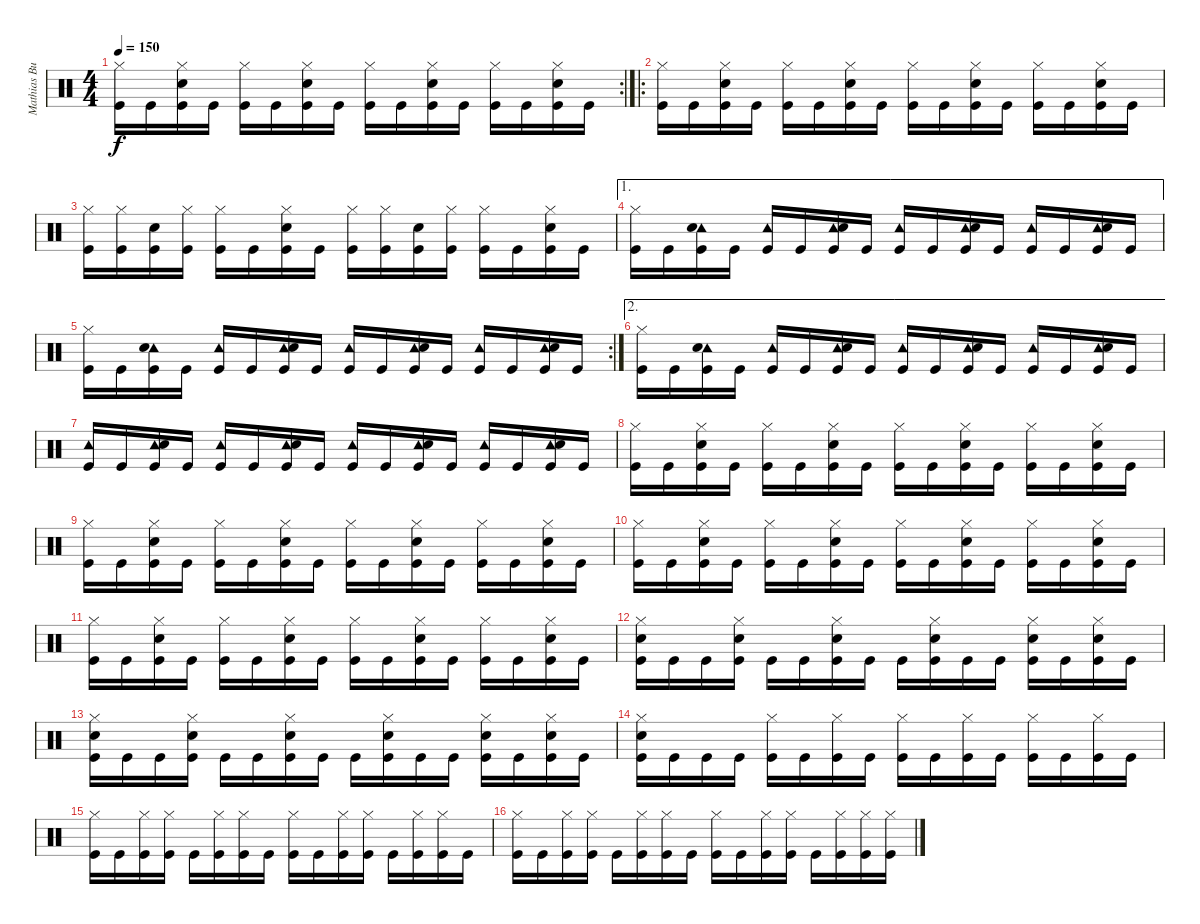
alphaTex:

\track ("Mathias Burchardt - batterie" "Mathias Bu") {instrument percussion}
\staff {score}
\articulation defaults
\rc 2
\ts (4 4)
\tempo 150
\clef neutral
\ks c
("Hi-Hat (closed)" "Kick (hit)").16{dy f} "Kick (hit)".16 ("Hi-Hat (closed)" "Snare (hit) 2" "Kick (hit)").16 "Kick (hit)".16 ("Hi-Hat (closed)" "Kick (hit)").16 "Kick (hit)".16 ("Hi-Hat (closed)" "Snare (hit) 2" "Kick (hit)").16 "Kick (hit)".16 ("Hi-Hat (closed)" "Kick (hit)").16 "Kick (hit)".16 ("Hi-Hat (closed)" "Snare (hit) 2" "Kick (hit)").16 "Kick (hit)".16 ("Hi-Hat (closed)" "Kick (hit)").16 "Kick (hit)".16 ("Hi-Hat (closed)" "Snare (hit) 2" "Kick (hit)").16 "Kick (hit)".16 |
\ro
("Hi-Hat (closed)" "Kick (hit)").16 "Kick (hit)".16 ("Hi-Hat (closed)" "Snare (hit) 2" "Kick (hit)").16 "Kick (hit)".16 ("Hi-Hat (closed)" "Kick (hit)").16 "Kick (hit)".16 ("Hi-Hat (closed)" "Snare (hit) 2" "Kick (hit)").16 "Kick (hit)".16 ("Hi-Hat (closed)" "Kick (hit)").16 "Kick (hit)".16 ("Hi-Hat (closed)" "Snare (hit) 2" "Kick (hit)").16 "Kick (hit)".16 ("Hi-Hat (closed)" "Kick (hit)").16 "Kick (hit)".16 ("Hi-Hat (closed)" "Snare (hit) 2" "Kick (hit)").16 "Kick (hit)".16 |
("Hi-Hat (closed)" "Kick (hit)").16 ("Hi-Hat (closed)" "Kick (hit)").16 ("Snare (hit) 2" "Kick (hit)").16 ("Hi-Hat (closed)" "Kick (hit)").16 ("Hi-Hat (closed)" "Kick (hit)").16 "Kick (hit)".16 ("Hi-Hat (closed)" "Snare (hit) 2" "Kick (hit)").16 "Kick (hit)".16 ("Hi-Hat (closed)" "Kick (hit)").16 ("Hi-Hat (closed)" "Kick (hit)").16 ("Snare (hit) 2" "Kick (hit)").16 ("Hi-Hat (closed)" "Kick (hit)").16 ("Hi-Hat (closed)" "Kick (hit)").16 "Kick (hit)".16 ("Hi-Hat (closed)" "Snare (hit) 2" "Kick (hit)").16 "Kick (hit)".16 |
\ae 1
("Hi-Hat (closed)" "Kick (hit)").16 "Kick (hit)".16 ("Tambourine (hit)" "Snare (hit) 2" "Kick (hit)").16 "Kick (hit)".16 ("Tambourine (hit)" "Kick (hit)").16 "Kick (hit)".16 ("Tambourine (hit)" "Snare (hit) 2" "Kick (hit)").16 "Kick (hit)".16 ("Tambourine (hit)" "Kick (hit)").16 "Kick (hit)".16 ("Tambourine (hit)" "Snare (hit) 2" "Kick (hit)").16 "Kick (hit)".16 ("Tambourine (hit)" "Kick (hit)").16 "Kick (hit)".16 ("Tambourine (hit)" "Snare (hit) 2" "Kick (hit)").16 "Kick (hit)".16 |
\rc 2
("Hi-Hat (closed)" "Kick (hit)").16 "Kick (hit)".16 ("Tambourine (hit)" "Snare (hit) 2" "Kick (hit)").16 "Kick (hit)".16 ("Tambourine (hit)" "Kick (hit)").16 "Kick (hit)".16 ("Tambourine (hit)" "Snare (hit) 2" "Kick (hit)").16 "Kick (hit)".16 ("Tambourine (hit)" "Kick (hit)").16 "Kick (hit)".16 ("Tambourine (hit)" "Snare (hit) 2" "Kick (hit)").16 "Kick (hit)".16 ("Tambourine (hit)" "Kick (hit)").16 "Kick (hit)".16 ("Tambourine (hit)" "Snare (hit) 2" "Kick (hit)").16 "Kick (hit)".16 |
\ae 2
("Hi-Hat (closed)" "Kick (hit)").16 "Kick (hit)".16 ("Tambourine (hit)" "Snare (hit) 2" "Kick (hit)").16 "Kick (hit)".16 ("Tambourine (hit)" "Kick (hit)").16 "Kick (hit)".16 ("Tambourine (hit)" "Snare (hit) 2" "Kick (hit)").16 "Kick (hit)".16 ("Tambourine (hit)" "Kick (hit)").16 "Kick (hit)".16 ("Tambourine (hit)" "Snare (hit) 2" "Kick (hit)").16 "Kick (hit)".16 ("Tambourine (hit)" "Kick (hit)").16 "Kick (hit)".16 ("Tambourine (hit)" "Snare (hit) 2" "Kick (hit)").16 "Kick (hit)".16 |
("Tambourine (hit)" "Kick (hit)").16 "Kick (hit)".16 ("Tambourine (hit)" "Snare (hit) 2" "Kick (hit)").16 "Kick (hit)".16 ("Tambourine (hit)" "Kick (hit)").16 "Kick (hit)".16 ("Tambourine (hit)" "Snare (hit) 2" "Kick (hit)").16 "Kick (hit)".16 ("Tambourine (hit)" "Kick (hit)").16 "Kick (hit)".16 ("Tambourine (hit)" "Snare (hit) 2" "Kick (hit)").16 "Kick (hit)".16 ("Tambourine (hit)" "Kick (hit)").16 "Kick (hit)".16 ("Tambourine (hit)" "Snare (hit) 2" "Kick (hit)").16 "Kick (hit)".16 |
("Hi-Hat (closed)" "Kick (hit)").16 "Kick (hit)".16 ("Hi-Hat (closed)" "Snare (hit) 2" "Kick (hit)").16 "Kick (hit)".16 ("Hi-Hat (closed)" "Kick (hit)").16 "Kick (hit)".16 ("Hi-Hat (closed)" "Snare (hit) 2" "Kick (hit)").16 "Kick (hit)".16 ("Hi-Hat (closed)" "Kick (hit)").16 "Kick (hit)".16 ("Hi-Hat (closed)" "Snare (hit) 2" "Kick (hit)").16 "Kick (hit)".16 ("Hi-Hat (closed)" "Kick (hit)").16 "Kick (hit)".16 ("Hi-Hat (closed)" "Snare (hit) 2" "Kick (hit)").16 "Kick (hit)".16 |
("Hi-Hat (closed)" "Kick (hit)").16 "Kick (hit)".16 ("Hi-Hat (closed)" "Snare (hit) 2" "Kick (hit)").16 "Kick (hit)".16 ("Hi-Hat (closed)" "Kick (hit)").16 "Kick (hit)".16 ("Hi-Hat (closed)" "Snare (hit) 2" "Kick (hit)").16 "Kick (hit)".16 ("Hi-Hat (closed)" "Kick (hit)").16 "Kick (hit)".16 ("Hi-Hat (closed)" "Snare (hit) 2" "Kick (hit)").16 "Kick (hit)".16 ("Hi-Hat (closed)" "Kick (hit)").16 "Kick (hit)".16 ("Hi-Hat (closed)" "Snare (hit) 2" "Kick (hit)").16 "Kick (hit)".16 |
("Hi-Hat (closed)" "Kick (hit)").16 "Kick (hit)".16 ("Hi-Hat (closed)" "Snare (hit) 2" "Kick (hit)").16 "Kick (hit)".16 ("Hi-Hat (closed)" "Kick (hit)").16 "Kick (hit)".16 ("Hi-Hat (closed)" "Snare (hit) 2" "Kick (hit)").16 "Kick (hit)".16 ("Hi-Hat (closed)" "Kick (hit)").16 "Kick (hit)".16 ("Hi-Hat (closed)" "Snare (hit) 2" "Kick (hit)").16 "Kick (hit)".16 ("Hi-Hat (closed)" "Kick (hit)").16 "Kick (hit)".16 ("Hi-Hat (closed)" "Snare (hit) 2" "Kick (hit)").16 "Kick (hit)".16 |
("Hi-Hat (closed)" "Kick (hit)").16 "Kick (hit)".16 ("Hi-Hat (closed)" "Snare (hit) 2" "Kick (hit)").16 "Kick (hit)".16 ("Hi-Hat (closed)" "Kick (hit)").16 "Kick (hit)".16 ("Hi-Hat (closed)" "Snare (hit) 2" "Kick (hit)").16 "Kick (hit)".16 ("Hi-Hat (closed)" "Kick (hit)").16 "Kick (hit)".16 ("Hi-Hat (closed)" "Snare (hit) 2" "Kick (hit)").16 "Kick (hit)".16 ("Hi-Hat (closed)" "Kick (hit)").16 "Kick (hit)".16 ("Hi-Hat (closed)" "Snare (hit) 2" "Kick (hit)").16 "Kick (hit)".16 |
("Hi-Hat (closed)" "Snare (hit) 2" "Kick (hit)").16 "Kick (hit)".16 "Kick (hit)".16 ("Hi-Hat (closed)" "Snare (hit) 2" "Kick (hit)").16 "Kick (hit)".16 "Kick (hit)".16 ("Hi-Hat (closed)" "Snare (hit) 2" "Kick (hit)").16 "Kick (hit)".16 "Kick (hit)".16 ("Hi-Hat (closed)" "Snare (hit) 2" "Kick (hit)").16 "Kick (hit)".16 "Kick (hit)".16 ("Hi-Hat (closed)" "Snare (hit) 2" "Kick (hit)").16 "Kick (hit)".16 ("Hi-Hat (closed)" "Snare (hit) 2" "Kick (hit)").16 "Kick (hit)".16 |
("Hi-Hat (closed)" "Snare (hit) 2" "Kick (hit)").16 "Kick (hit)".16 "Kick (hit)".16 ("Hi-Hat (closed)" "Snare (hit) 2" "Kick (hit)").16 "Kick (hit)".16 "Kick (hit)".16 ("Hi-Hat (closed)" "Snare (hit) 2" "Kick (hit)").16 "Kick (hit)".16 "Kick (hit)".16 ("Hi-Hat (closed)" "Snare (hit) 2" "Kick (hit)").16 "Kick (hit)".16 "Kick (hit)".16 ("Hi-Hat (closed)" "Snare (hit) 2" "Kick (hit)").16 "Kick (hit)".16 ("Hi-Hat (closed)" "Snare (hit) 2" "Kick (hit)").16 "Kick (hit)".16 |
("Hi-Hat (closed)" "Snare (hit) 2" "Kick (hit)").16 "Kick (hit)".16 "Kick (hit)".16 "Kick (hit)".16 ("Hi-Hat (closed)" "Kick (hit)").16 "Kick (hit)".16 ("Hi-Hat (closed)" "Kick (hit)").16 "Kick (hit)".16 ("Hi-Hat (closed)" "Kick (hit)").16 "Kick (hit)".16 ("Hi-Hat (closed)" "Kick (hit)").16 "Kick (hit)".16 ("Hi-Hat (closed)" "Kick (hit)").16 "Kick (hit)".16 ("Hi-Hat (closed)" "Kick (hit)").16 "Kick (hit)".16 |
("Hi-Hat (closed)" "Kick (hit)").16 "Kick (hit)".16 ("Hi-Hat (closed)" "Kick (hit)").16 ("Hi-Hat (closed)" "Kick (hit)").16 "Kick (hit)".16 ("Hi-Hat (closed)" "Kick (hit)").16 ("Hi-Hat (closed)" "Kick (hit)").16 "Kick (hit)".16 ("Hi-Hat (closed)" "Kick (hit)").16 "Kick (hit)".16 ("Hi-Hat (closed)" "Kick (hit)").16 ("Hi-Hat (closed)" "Kick (hit)").16 "Kick (hit)".16 ("Hi-Hat (closed)" "Kick (hit)").16 ("Hi-Hat (closed)" "Kick (hit)").16 "Kick (hit)".16 |
("Hi-Hat (closed)" "Kick (hit)").16 "Kick (hit)".16 ("Hi-Hat (closed)" "Kick (hit)").16 ("Hi-Hat (closed)" "Kick (hit)").16 "Kick (hit)".16 ("Hi-Hat (closed)" "Kick (hit)").16 ("Hi-Hat (closed)" "Kick (hit)").16 "Kick (hit)".16 ("Hi-Hat (closed)" "Kick (hit)").16 "Kick (hit)".16 ("Hi-Hat (closed)" "Kick (hit)").16 ("Hi-Hat (closed)" "Kick (hit)").16 "Kick (hit)".16 ("Hi-Hat (closed)" "Kick (hit)").16 ("Hi-Hat (closed)" "Kick (hit)").16 ("Hi-Hat (closed)" "Kick (hit)").16
